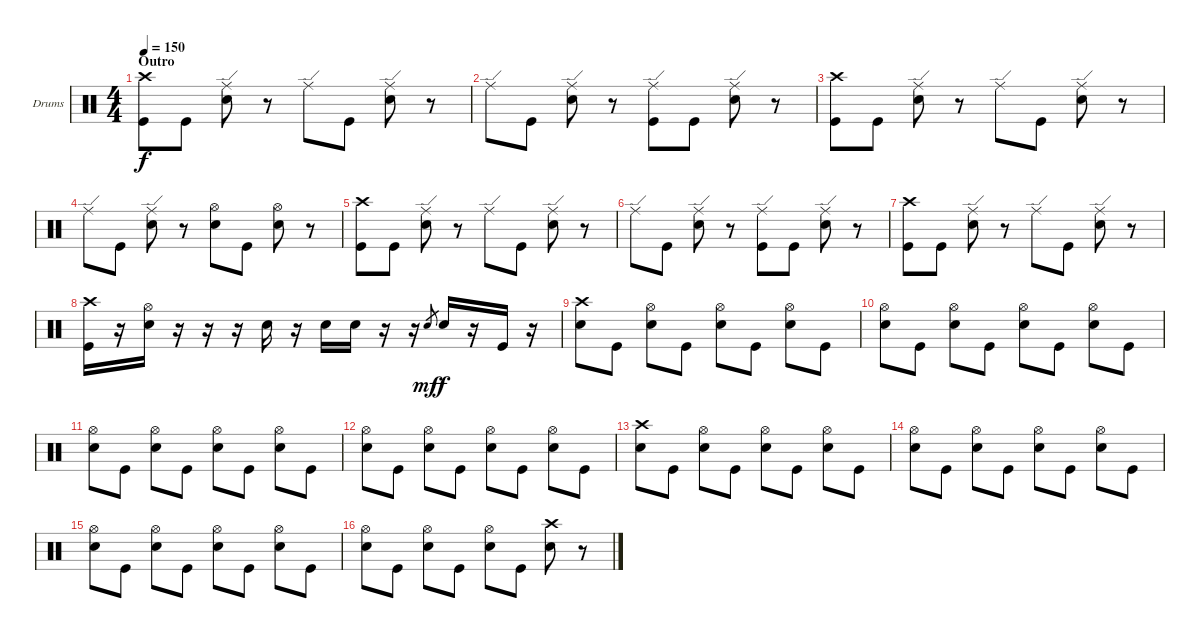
\bracketExtendMode nobrackets
\firstSystemTrackNameOrientation horizontal
\otherSystemsTrackNameOrientation horizontal
\track ("Drumkit" "Drums") {instrument percussion}
\staff {score}
\articulation defaults
\ts (4 4)
\beaming (8 2 2 2 2)
\section ("" "Outro")
\tempo 150
\clef neutral
\ks c
("Crash high (hit)" "Kick (hit)").8{dy f} "Kick (hit)".8 ("Ride (edge)" "Snare (hit) 2").8 r.8 "Ride (edge)".8 "Kick (hit)".8 ("Ride (edge)" "Snare (hit) 2").8 r.8 |
"Ride (edge)".8 "Kick (hit)".8 ("Ride (edge)" "Snare (hit) 2").8 r.8 ("Ride (edge)" "Kick (hit)").8 "Kick (hit)".8 ("Ride (edge)" "Snare (hit) 2").8 r.8 |
("Crash high (hit)" "Kick (hit)").8 "Kick (hit)".8 ("Ride (edge)" "Snare (hit) 2").8 r.8 "Ride (edge)".8 "Kick (hit)".8 ("Ride (edge)" "Snare (hit) 2").8 r.8 |
"Ride (edge)".8 "Kick (hit)".8 ("Ride (edge)" "Snare (hit) 2").8 r.8 ("Hi-Hat (open)" "Snare (hit) 2").8 "Kick (hit)".8 ("Hi-Hat (open)" "Snare (hit) 2").8 r.8 |
("Crash high (hit)" "Kick (hit)").8 "Kick (hit)".8 ("Ride (edge)" "Snare (hit) 2").8 r.8 "Ride (edge)".8 "Kick (hit)".8 ("Ride (edge)" "Snare (hit) 2").8 r.8 |
"Ride (edge)".8 "Kick (hit)".8 ("Ride (edge)" "Snare (hit) 2").8 r.8 ("Ride (edge)" "Kick (hit)").8 "Kick (hit)".8 ("Ride (edge)" "Snare (hit) 2").8 r.8 |
("Crash high (hit)" "Kick (hit)").8 "Kick (hit)".8 ("Ride (edge)" "Snare (hit) 2").8 r.8 "Ride (edge)".8 "Kick (hit)".8 ("Ride (edge)" "Snare (hit) 2").8 r.8 |
("Crash high (hit)" "Kick (hit)").16 r.16 ("Hi-Hat (open)" "Snare (hit) 2").16 r.16 r.16 r.16 "Snare (hit) 2".16 r.16 "Snare (hit) 2".16 "Snare (hit) 2".16 r.16 r.16 "Snare (hit) 2".8{gr dy mf} "Snare (hit) 2".16{dy f} r.16 "Kick (hit)".16 r.16 |
("Crash high (hit)" "Snare (hit) 2").8 "Kick (hit)".8 ("Hi-Hat (open)" "Snare (hit) 2").8 "Kick (hit)".8 ("Hi-Hat (open)" "Snare (hit) 2").8 "Kick (hit)".8 ("Hi-Hat (open)" "Snare (hit) 2").8 "Kick (hit)".8 |
("Hi-Hat (open)" "Snare (hit) 2").8 "Kick (hit)".8 ("Hi-Hat (open)" "Snare (hit) 2").8 "Kick (hit)".8 ("Hi-Hat (open)" "Snare (hit) 2").8 "Kick (hit)".8 ("Hi-Hat (open)" "Snare (hit) 2").8 "Kick (hit)".8 |
("Hi-Hat (open)" "Snare (hit) 2").8 "Kick (hit)".8 ("Hi-Hat (open)" "Snare (hit) 2").8 "Kick (hit)".8 ("Hi-Hat (open)" "Snare (hit) 2").8 "Kick (hit)".8 ("Hi-Hat (open)" "Snare (hit) 2").8 "Kick (hit)".8 |
("Hi-Hat (open)" "Snare (hit) 2").8 "Kick (hit)".8 ("Hi-Hat (open)" "Snare (hit) 2").8 "Kick (hit)".8 ("Hi-Hat (open)" "Snare (hit) 2").8 "Kick (hit)".8 ("Hi-Hat (open)" "Snare (hit) 2").8 "Kick (hit)".8 |
("Crash high (hit)" "Snare (hit) 2").8 "Kick (hit)".8 ("Hi-Hat (open)" "Snare (hit) 2").8 "Kick (hit)".8 ("Hi-Hat (open)" "Snare (hit) 2").8 "Kick (hit)".8 ("Hi-Hat (open)" "Snare (hit) 2").8 "Kick (hit)".8 |
("Hi-Hat (open)" "Snare (hit) 2").8 "Kick (hit)".8 ("Hi-Hat (open)" "Snare (hit) 2").8 "Kick (hit)".8 ("Hi-Hat (open)" "Snare (hit) 2").8 "Kick (hit)".8 ("Hi-Hat (open)" "Snare (hit) 2").8 "Kick (hit)".8 |
("Hi-Hat (open)" "Snare (hit) 2").8 "Kick (hit)".8 ("Hi-Hat (open)" "Snare (hit) 2").8 "Kick (hit)".8 ("Hi-Hat (open)" "Snare (hit) 2").8 "Kick (hit)".8 ("Hi-Hat (open)" "Snare (hit) 2").8 "Kick (hit)".8 |
("Hi-Hat (open)" "Snare (hit) 2").8 "Kick (hit)".8 ("Hi-Hat (open)" "Snare (hit) 2").8 "Kick (hit)".8 ("Hi-Hat (open)" "Snare (hit) 2").8 "Kick (hit)".8 ("Crash high (hit)" "Snare (hit) 2").8 r.8
